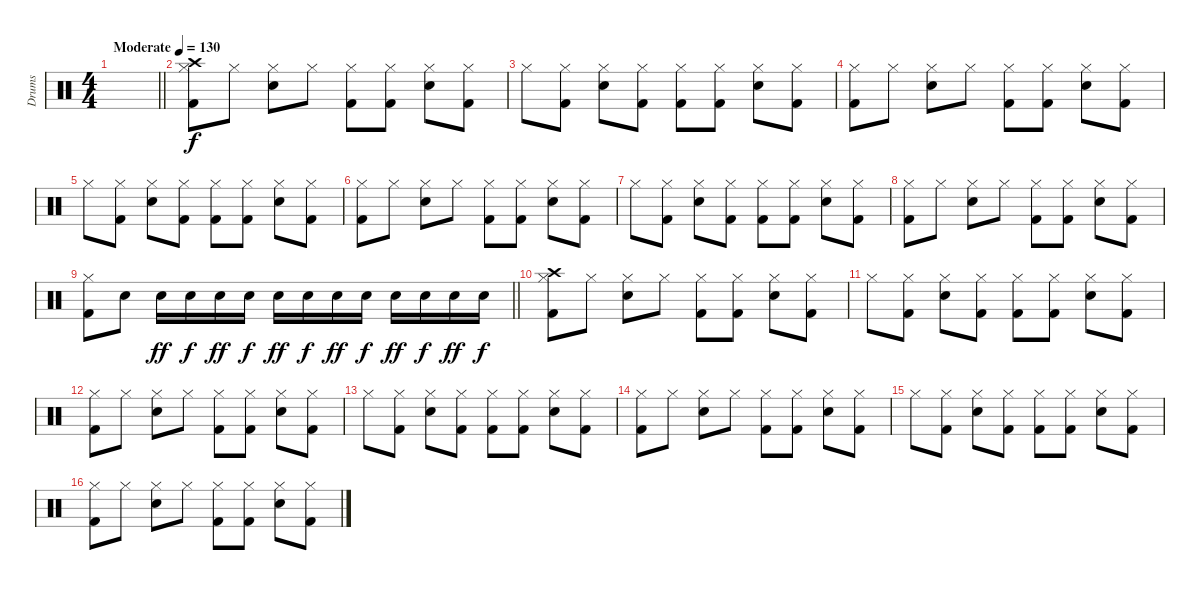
\track ("Drums" "Drums") {instrument percussion}
\staff {score}
\articulation defaults
\ts (4 4)
\tempo (130 "Moderate")
\clef neutral
\barLineRight lightlight
\ks c
|
("Hi-Hat (closed)" "Crash high (hit)" "Kick (hit) 2").8 "Hi-Hat (closed)".8 ("Hi-Hat (closed)" "Electric Snare (hit)").8 "Hi-Hat (closed)".8 ("Hi-Hat (closed)" "Kick (hit) 2").8 ("Hi-Hat (closed)" "Kick (hit) 2").8 ("Hi-Hat (closed)" "Electric Snare (hit)").8 ("Hi-Hat (closed)" "Kick (hit) 2").8 |
"Hi-Hat (closed)".8 ("Hi-Hat (closed)" "Kick (hit) 2").8 ("Hi-Hat (closed)" "Electric Snare (hit)").8 ("Hi-Hat (closed)" "Kick (hit) 2").8 ("Hi-Hat (closed)" "Kick (hit) 2").8 ("Hi-Hat (closed)" "Kick (hit) 2").8 ("Hi-Hat (closed)" "Electric Snare (hit)").8 ("Hi-Hat (closed)" "Kick (hit) 2").8 |
("Hi-Hat (closed)" "Kick (hit) 2").8 "Hi-Hat (closed)".8 ("Hi-Hat (closed)" "Electric Snare (hit)").8 "Hi-Hat (closed)".8 ("Hi-Hat (closed)" "Kick (hit) 2").8 ("Hi-Hat (closed)" "Kick (hit) 2").8 ("Hi-Hat (closed)" "Electric Snare (hit)").8 ("Hi-Hat (closed)" "Kick (hit) 2").8 |
"Hi-Hat (closed)".8 ("Hi-Hat (closed)" "Kick (hit) 2").8 ("Hi-Hat (closed)" "Electric Snare (hit)").8 ("Hi-Hat (closed)" "Kick (hit) 2").8 ("Hi-Hat (closed)" "Kick (hit) 2").8 ("Hi-Hat (closed)" "Kick (hit) 2").8 ("Hi-Hat (closed)" "Electric Snare (hit)").8 ("Hi-Hat (closed)" "Kick (hit) 2").8 |
("Hi-Hat (closed)" "Kick (hit) 2").8 "Hi-Hat (closed)".8 ("Hi-Hat (closed)" "Electric Snare (hit)").8 "Hi-Hat (closed)".8 ("Hi-Hat (closed)" "Kick (hit) 2").8 ("Hi-Hat (closed)" "Kick (hit) 2").8 ("Hi-Hat (closed)" "Electric Snare (hit)").8 ("Hi-Hat (closed)" "Kick (hit) 2").8 |
"Hi-Hat (closed)".8 ("Hi-Hat (closed)" "Kick (hit) 2").8 ("Hi-Hat (closed)" "Electric Snare (hit)").8 ("Hi-Hat (closed)" "Kick (hit) 2").8 ("Hi-Hat (closed)" "Kick (hit) 2").8 ("Hi-Hat (closed)" "Kick (hit) 2").8 ("Hi-Hat (closed)" "Electric Snare (hit)").8 ("Hi-Hat (closed)" "Kick (hit) 2").8 |
("Hi-Hat (closed)" "Kick (hit) 2").8 "Hi-Hat (closed)".8 ("Hi-Hat (closed)" "Electric Snare (hit)").8 "Hi-Hat (closed)".8 ("Hi-Hat (closed)" "Kick (hit) 2").8 ("Hi-Hat (closed)" "Kick (hit) 2").8 ("Hi-Hat (closed)" "Electric Snare (hit)").8 ("Hi-Hat (closed)" "Kick (hit) 2").8 |
\barLineRight lightlight
("Hi-Hat (closed)" "Kick (hit) 2").8 "Electric Snare (hit)".8 "Electric Snare (hit)".16{dy ff} "Electric Snare (hit)".16{dy f} "Electric Snare (hit)".16{dy ff} "Electric Snare (hit)".16{dy f} "Electric Snare (hit)".16{dy ff} "Electric Snare (hit)".16{dy f} "Electric Snare (hit)".16{dy ff} "Electric Snare (hit)".16{dy f} "Electric Snare (hit)".16{dy ff} "Electric Snare (hit)".16{dy f} "Electric Snare (hit)".16{dy ff} "Electric Snare (hit)".16{dy f} |
("Hi-Hat (closed)" "Crash high (hit)" "Kick (hit) 2").8 "Hi-Hat (closed)".8 ("Hi-Hat (closed)" "Electric Snare (hit)").8 "Hi-Hat (closed)".8 ("Hi-Hat (closed)" "Kick (hit) 2").8 ("Hi-Hat (closed)" "Kick (hit) 2").8 ("Hi-Hat (closed)" "Electric Snare (hit)").8 ("Hi-Hat (closed)" "Kick (hit) 2").8 |
"Hi-Hat (closed)".8 ("Hi-Hat (closed)" "Kick (hit) 2").8 ("Hi-Hat (closed)" "Electric Snare (hit)").8 ("Hi-Hat (closed)" "Kick (hit) 2").8 ("Hi-Hat (closed)" "Kick (hit) 2").8 ("Hi-Hat (closed)" "Kick (hit) 2").8 ("Hi-Hat (closed)" "Electric Snare (hit)").8 ("Hi-Hat (closed)" "Kick (hit) 2").8 |
("Hi-Hat (closed)" "Kick (hit) 2").8 "Hi-Hat (closed)".8 ("Hi-Hat (closed)" "Electric Snare (hit)").8 "Hi-Hat (closed)".8 ("Hi-Hat (closed)" "Kick (hit) 2").8 ("Hi-Hat (closed)" "Kick (hit) 2").8 ("Hi-Hat (closed)" "Electric Snare (hit)").8 ("Hi-Hat (closed)" "Kick (hit) 2").8 |
"Hi-Hat (closed)".8 ("Hi-Hat (closed)" "Kick (hit) 2").8 ("Hi-Hat (closed)" "Electric Snare (hit)").8 ("Hi-Hat (closed)" "Kick (hit) 2").8 ("Hi-Hat (closed)" "Kick (hit) 2").8 ("Hi-Hat (closed)" "Kick (hit) 2").8 ("Hi-Hat (closed)" "Electric Snare (hit)").8 ("Hi-Hat (closed)" "Kick (hit) 2").8 |
("Hi-Hat (closed)" "Kick (hit) 2").8 "Hi-Hat (closed)".8 ("Hi-Hat (closed)" "Electric Snare (hit)").8 "Hi-Hat (closed)".8 ("Hi-Hat (closed)" "Kick (hit) 2").8 ("Hi-Hat (closed)" "Kick (hit) 2").8 ("Hi-Hat (closed)" "Electric Snare (hit)").8 ("Hi-Hat (closed)" "Kick (hit) 2").8 |
"Hi-Hat (closed)".8 ("Hi-Hat (closed)" "Kick (hit) 2").8 ("Hi-Hat (closed)" "Electric Snare (hit)").8 ("Hi-Hat (closed)" "Kick (hit) 2").8 ("Hi-Hat (closed)" "Kick (hit) 2").8 ("Hi-Hat (closed)" "Kick (hit) 2").8 ("Hi-Hat (closed)" "Electric Snare (hit)").8 ("Hi-Hat (closed)" "Kick (hit) 2").8 |
("Hi-Hat (closed)" "Kick (hit) 2").8 "Hi-Hat (closed)".8 ("Hi-Hat (closed)" "Electric Snare (hit)").8 "Hi-Hat (closed)".8 ("Hi-Hat (closed)" "Kick (hit) 2").8 ("Hi-Hat (closed)" "Kick (hit) 2").8 ("Hi-Hat (closed)" "Electric Snare (hit)").8 ("Hi-Hat (closed)" "Kick (hit) 2").8
